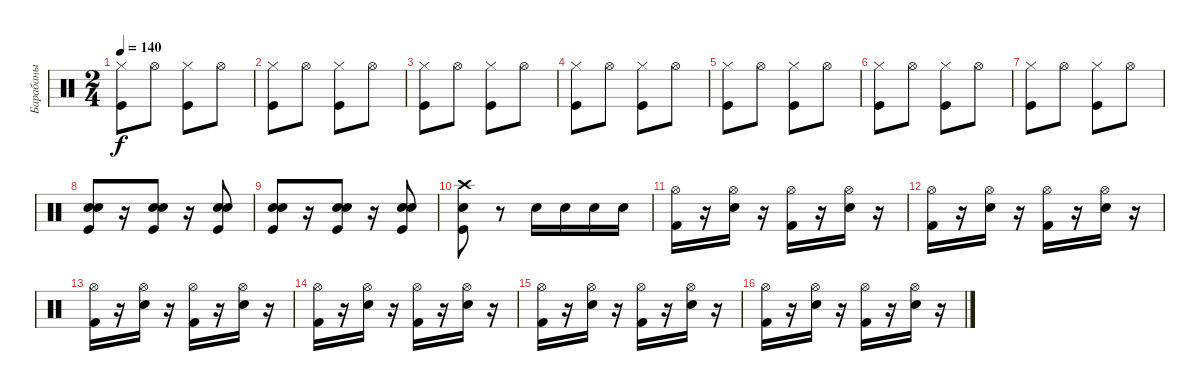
\track ("Барабаны" "Барабаны") {instrument percussion}
\staff {score}
\articulation defaults
\ts (2 4)
\tempo 140
\clef neutral
\ks c
("Kick (hit)" "Hi-Hat (closed)").8{dy f} "Hi-Hat (open)".8 ("Kick (hit)" "Hi-Hat (closed)").8 "Hi-Hat (open)".8 |
("Kick (hit)" "Hi-Hat (closed)").8 "Hi-Hat (open)".8 ("Kick (hit)" "Hi-Hat (closed)").8 "Hi-Hat (open)".8 |
("Kick (hit)" "Hi-Hat (closed)").8 "Hi-Hat (open)".8 ("Kick (hit)" "Hi-Hat (closed)").8 "Hi-Hat (open)".8 |
("Kick (hit)" "Hi-Hat (closed)").8 "Hi-Hat (open)".8 ("Kick (hit)" "Hi-Hat (closed)").8 "Hi-Hat (open)".8 |
("Kick (hit)" "Hi-Hat (closed)").8 "Hi-Hat (open)".8 ("Kick (hit)" "Hi-Hat (closed)").8 "Hi-Hat (open)".8 |
("Kick (hit)" "Hi-Hat (closed)").8 "Hi-Hat (open)".8 ("Kick (hit)" "Hi-Hat (closed)").8 "Hi-Hat (open)".8 |
("Kick (hit)" "Hi-Hat (closed)").8 "Hi-Hat (open)".8 ("Kick (hit)" "Hi-Hat (closed)").8 "Hi-Hat (open)".8 |
("Electric Snare (hit)" "Electric Snare (hit)" "Kick (hit)").8 r.16 ("Electric Snare (hit)" "Kick (hit)" "Electric Snare (hit)").8 r.16 ("Electric Snare (hit)" "Kick (hit)" "Electric Snare (hit)").8 |
("Electric Snare (hit)" "Electric Snare (hit)" "Kick (hit)").8 r.16 ("Electric Snare (hit)" "Kick (hit)" "Electric Snare (hit)").8 r.16 ("Electric Snare (hit)" "Kick (hit)" "Electric Snare (hit)").8 |
("Kick (hit)" "Electric Snare (hit)" "Crash high (hit)").8 r.8 "Electric Snare (hit)".16 "Electric Snare (hit)".16 "Electric Snare (hit)".16 "Electric Snare (hit)".16 |
("Kick (hit) 2" "Hi-Hat (open)").16 r.16 ("Electric Snare (hit)" "Hi-Hat (open)").16 r.16 ("Kick (hit) 2" "Hi-Hat (open)").16 r.16 ("Electric Snare (hit)" "Hi-Hat (open)").16 r.16 |
("Kick (hit) 2" "Hi-Hat (open)").16 r.16 ("Electric Snare (hit)" "Hi-Hat (open)").16 r.16 ("Kick (hit) 2" "Hi-Hat (open)").16 r.16 ("Electric Snare (hit)" "Hi-Hat (open)").16 r.16 |
("Kick (hit) 2" "Hi-Hat (open)").16 r.16 ("Electric Snare (hit)" "Hi-Hat (open)").16 r.16 ("Kick (hit) 2" "Hi-Hat (open)").16 r.16 ("Electric Snare (hit)" "Hi-Hat (open)").16 r.16 |
("Kick (hit) 2" "Hi-Hat (open)").16 r.16 ("Electric Snare (hit)" "Hi-Hat (open)").16 r.16 ("Kick (hit) 2" "Hi-Hat (open)").16 r.16 ("Electric Snare (hit)" "Hi-Hat (open)").16 r.16 |
("Kick (hit) 2" "Hi-Hat (open)").16 r.16 ("Electric Snare (hit)" "Hi-Hat (open)").16 r.16 ("Kick (hit) 2" "Hi-Hat (open)").16 r.16 ("Electric Snare (hit)" "Hi-Hat (open)").16 r.16 |
("Kick (hit) 2" "Hi-Hat (open)").16 r.16 ("Electric Snare (hit)" "Hi-Hat (open)").16 r.16 ("Kick (hit) 2" "Hi-Hat (open)").16 r.16 ("Electric Snare (hit)" "Hi-Hat (open)").16 r.16
